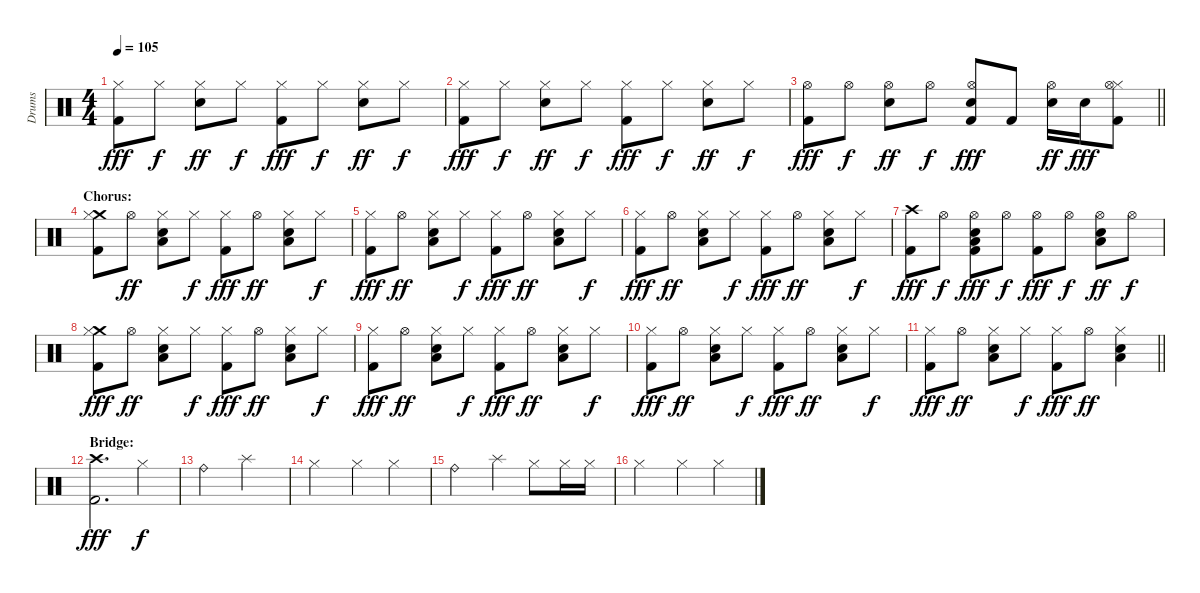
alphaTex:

\track ("Drums" "Drums") {instrument percussion}
\staff {score}
\articulation defaults
\ts (4 4)
\tempo 105
\clef neutral
\ks c
("Hi-Hat (closed)" "Kick (hit) 2").8{dy fff} "Hi-Hat (closed)".8{dy f} ("Hi-Hat (closed)" "Electric Snare (hit)").8{dy ff} "Hi-Hat (closed)".8{dy f} ("Hi-Hat (closed)" "Kick (hit) 2").8{dy fff} "Hi-Hat (closed)".8{dy f} ("Hi-Hat (closed)" "Electric Snare (hit)").8{dy ff} "Hi-Hat (closed)".8{dy f} |
("Hi-Hat (closed)" "Kick (hit) 2").8{dy fff} "Hi-Hat (closed)".8{dy f} ("Hi-Hat (closed)" "Electric Snare (hit)").8{dy ff} "Hi-Hat (closed)".8{dy f} ("Hi-Hat (closed)" "Kick (hit) 2").8{dy fff} "Hi-Hat (closed)".8{dy f} ("Hi-Hat (closed)" "Electric Snare (hit)").8{dy ff} "Hi-Hat (closed)".8{dy f} |
\barLineRight lightlight
("Hi-Hat (open)" "Kick (hit) 2").8{dy fff} "Hi-Hat (open)".8{dy f} ("Hi-Hat (open)" "Snare (hit) 2").8{dy ff} "Hi-Hat (open)".8{dy f} ("Hi-Hat (open)" "Snare (hit) 2" "Kick (hit) 2").8{dy fff} "Kick (hit) 2".8 ("Snare (hit) 2" "Hi-Hat (open)").16{dy ff} "Snare (hit) 2".16{dy fff} ("Hi-Hat (closed)" "Hi-Hat (open)" "Kick (hit) 2").8 |
\section ("" "Chorus:")
("Crash medium (hit)" "Hi-Hat (closed)" "Kick (hit) 2").8 "Hi-Hat (open)".8{dy ff} ("Hi-Hat (closed)" "Low Floor Tom (hit)" "Snare (hit) 2").8 "Hi-Hat (closed)".8{dy f} ("Hi-Hat (closed)" "Kick (hit) 2").8{dy fff} "Hi-Hat (open)".8{dy ff} ("Hi-Hat (closed)" "Low Floor Tom (hit)" "Snare (hit) 2").8 "Hi-Hat (closed)".8{dy f} |
("Hi-Hat (closed)" "Kick (hit) 2").8{dy fff} "Hi-Hat (open)".8{dy ff} ("Hi-Hat (closed)" "Low Floor Tom (hit)" "Snare (hit) 2").8 "Hi-Hat (closed)".8{dy f} ("Hi-Hat (closed)" "Kick (hit) 2").8{dy fff} "Hi-Hat (open)".8{dy ff} ("Hi-Hat (closed)" "Low Floor Tom (hit)" "Snare (hit) 2").8 "Hi-Hat (closed)".8{dy f} |
("Hi-Hat (closed)" "Kick (hit) 2").8{dy fff} "Hi-Hat (open)".8{dy ff} ("Hi-Hat (closed)" "Low Floor Tom (hit)" "Snare (hit) 2").8 "Hi-Hat (closed)".8{dy f} ("Hi-Hat (closed)" "Kick (hit) 2").8{dy fff} "Hi-Hat (open)".8{dy ff} ("Hi-Hat (closed)" "Low Floor Tom (hit)" "Snare (hit) 2").8 "Hi-Hat (closed)".8{dy f} |
("Crash high (hit)" "Kick (hit) 2").8{dy fff} "Hi-Hat (open)".8{dy f} ("Hi-Hat (open)" "Low Floor Tom (hit)" "Snare (hit) 2" "Kick (hit) 2").8{dy fff} "Hi-Hat (open)".8{dy f} ("Hi-Hat (open)" "Kick (hit) 2").8{dy fff} "Hi-Hat (open)".8{dy f} ("Hi-Hat (open)" "Low Floor Tom (hit)" "Snare (hit) 2").8{dy ff} "Hi-Hat (open)".8{dy f} |
("Crash medium (hit)" "Hi-Hat (closed)" "Kick (hit) 2").8{dy fff} "Hi-Hat (open)".8{dy ff} ("Hi-Hat (closed)" "Low Floor Tom (hit)" "Snare (hit) 2").8 "Hi-Hat (closed)".8{dy f} ("Hi-Hat (closed)" "Kick (hit) 2").8{dy fff} "Hi-Hat (open)".8{dy ff} ("Hi-Hat (closed)" "Low Floor Tom (hit)" "Snare (hit) 2").8 "Hi-Hat (closed)".8{dy f} |
("Hi-Hat (closed)" "Kick (hit) 2").8{dy fff} "Hi-Hat (open)".8{dy ff} ("Hi-Hat (closed)" "Low Floor Tom (hit)" "Snare (hit) 2").8 "Hi-Hat (closed)".8{dy f} ("Hi-Hat (closed)" "Kick (hit) 2").8{dy fff} "Hi-Hat (open)".8{dy ff} ("Hi-Hat (closed)" "Low Floor Tom (hit)" "Snare (hit) 2").8 "Hi-Hat (closed)".8{dy f} |
("Hi-Hat (closed)" "Kick (hit) 2").8{dy fff} "Hi-Hat (open)".8{dy ff} ("Hi-Hat (closed)" "Low Floor Tom (hit)" "Snare (hit) 2").8 "Hi-Hat (closed)".8{dy f} ("Hi-Hat (closed)" "Kick (hit) 2").8{dy fff} "Hi-Hat (open)".8{dy ff} ("Hi-Hat (closed)" "Low Floor Tom (hit)" "Snare (hit) 2").8 "Hi-Hat (closed)".8{dy f} |
\barLineRight lightlight
("Hi-Hat (closed)" "Kick (hit) 2").8{dy fff} "Hi-Hat (open)".8{dy ff} ("Hi-Hat (closed)" "Low Floor Tom (hit)" "Snare (hit) 2").8 "Hi-Hat (closed)".8{dy f} ("Hi-Hat (closed)" "Kick (hit) 2").8{dy fff} "Hi-Hat (open)".8{dy ff} ("Hi-Hat (closed)" "Low Floor Tom (hit)" "Snare (hit) 2").4 |
\section ("" "Bridge:")
("Crash high (hit)" "Kick (hit) 2").2{d dy fff} "Hi-Hat (closed)".4{dy f} |
"Ride (bell)".2 "Splash (hit)".2 |
"Hi-Hat (closed)".2 "Hi-Hat (closed)".4 "Hi-Hat (closed)".4 |
"Ride (bell)".2 "Splash (hit)".4 "Hi-Hat (closed)".8 "Hi-Hat (closed)".16 "Hi-Hat (closed)".16 |
"Hi-Hat (closed)".2 "Hi-Hat (closed)".4 "Hi-Hat (closed)".4
